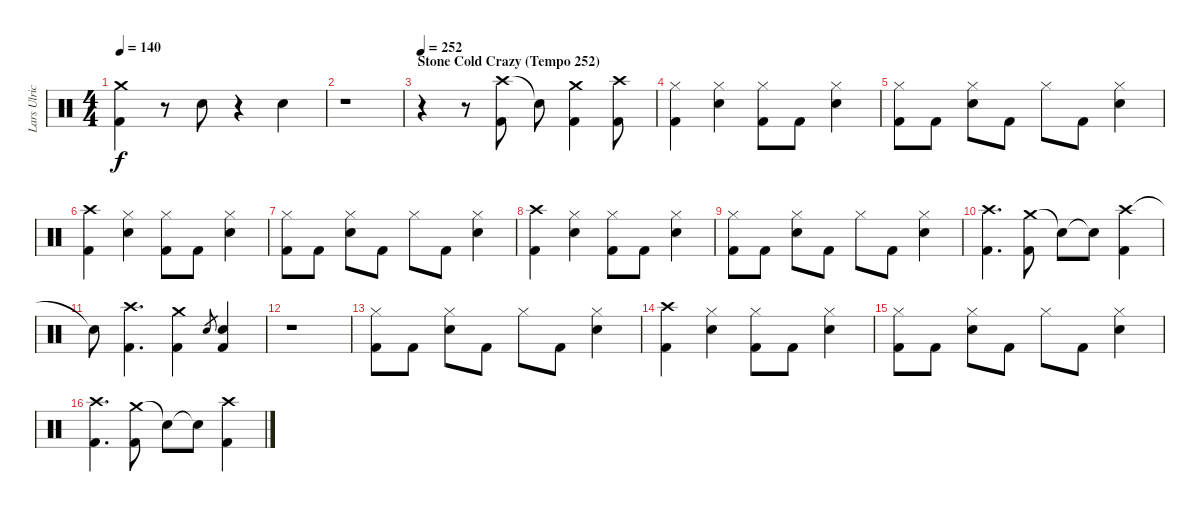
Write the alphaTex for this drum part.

\track ("Lars Ulrich (Drums)" "Lars Ulric") {instrument percussion}
\staff {score}
\articulation defaults
\ts (4 4)
\tempo 140
\clef neutral
\ks c
("Kick (hit) 2" "Crash medium (hit)").4{dy f} r.8 "Snare (hit) 2".8 r.4 "Snare (hit) 2".4 |
r.1 |
\section ("" "Stone Cold Crazy (Tempo 252)")
\tempo 252
r.4 r.8 ("Crash high (hit)" "Kick (hit) 2").8 "Snare (hit)"{t}.8 ("Crash medium (hit)" "Kick (hit) 2").4 ("Crash high (hit)" "Kick (hit) 2").8 |
("Hi-Hat (closed)" "Kick (hit) 2").4 ("Hi-Hat (closed)" "Electric Snare (hit)").4 ("Hi-Hat (closed)" "Kick (hit) 2").8 "Kick (hit) 2".8 ("Hi-Hat (closed)" "Electric Snare (hit)").4 |
("Hi-Hat (closed)" "Kick (hit) 2").8 "Kick (hit) 2".8 ("Hi-Hat (closed)" "Electric Snare (hit)").8 "Kick (hit) 2".8 "Hi-Hat (closed)".8 "Kick (hit) 2".8 ("Hi-Hat (closed)" "Electric Snare (hit)").4 |
("Crash high (hit)" "Kick (hit) 2").4 ("Hi-Hat (closed)" "Electric Snare (hit)").4 ("Hi-Hat (closed)" "Kick (hit) 2").8 "Kick (hit) 2".8 ("Hi-Hat (closed)" "Electric Snare (hit)").4 |
("Hi-Hat (closed)" "Kick (hit) 2").8 "Kick (hit) 2".8 ("Hi-Hat (closed)" "Electric Snare (hit)").8 "Kick (hit) 2".8 "Hi-Hat (closed)".8 "Kick (hit) 2".8 ("Hi-Hat (closed)" "Electric Snare (hit)").4 |
("Crash high (hit)" "Kick (hit) 2").4 ("Hi-Hat (closed)" "Electric Snare (hit)").4 ("Hi-Hat (closed)" "Kick (hit) 2").8 "Kick (hit) 2".8 ("Hi-Hat (closed)" "Electric Snare (hit)").4 |
("Hi-Hat (closed)" "Kick (hit) 2").8 "Kick (hit) 2".8 ("Hi-Hat (closed)" "Electric Snare (hit)").8 "Kick (hit) 2".8 "Hi-Hat (closed)".8 "Kick (hit) 2".8 ("Hi-Hat (closed)" "Electric Snare (hit)").4 |
("Crash high (hit)" "Kick (hit) 2").4{d} ("Crash medium (hit)" "Kick (hit) 2").8 "Snare (hit)"{t}.8 "Snare (hit)"{t}.8 ("Crash high (hit)" "Kick (hit) 2").4 |
"Snare (hit)"{t}.8 ("Crash high (hit)" "Kick (hit) 2").4{d} ("Crash medium (hit)" "Kick (hit) 2").4 "Electric Snare (hit)".8{gr} ("Electric Snare (hit)" "Kick (hit) 2").4 |
r.1 |
("Hi-Hat (closed)" "Kick (hit) 2").8 "Kick (hit) 2".8 ("Hi-Hat (closed)" "Electric Snare (hit)").8 "Kick (hit) 2".8 "Hi-Hat (closed)".8 "Kick (hit) 2".8 ("Hi-Hat (closed)" "Electric Snare (hit)").4 |
("Crash high (hit)" "Kick (hit) 2").4 ("Hi-Hat (closed)" "Electric Snare (hit)").4 ("Hi-Hat (closed)" "Kick (hit) 2").8 "Kick (hit) 2".8 ("Hi-Hat (closed)" "Electric Snare (hit)").4 |
("Hi-Hat (closed)" "Kick (hit) 2").8 "Kick (hit) 2".8 ("Hi-Hat (closed)" "Electric Snare (hit)").8 "Kick (hit) 2".8 "Hi-Hat (closed)".8 "Kick (hit) 2".8 ("Hi-Hat (closed)" "Electric Snare (hit)").4 |
("Crash high (hit)" "Kick (hit) 2").4{d} ("Crash medium (hit)" "Kick (hit) 2").8 "Snare (hit)"{t}.8 "Snare (hit)"{t}.8 ("Crash high (hit)" "Kick (hit) 2").4
